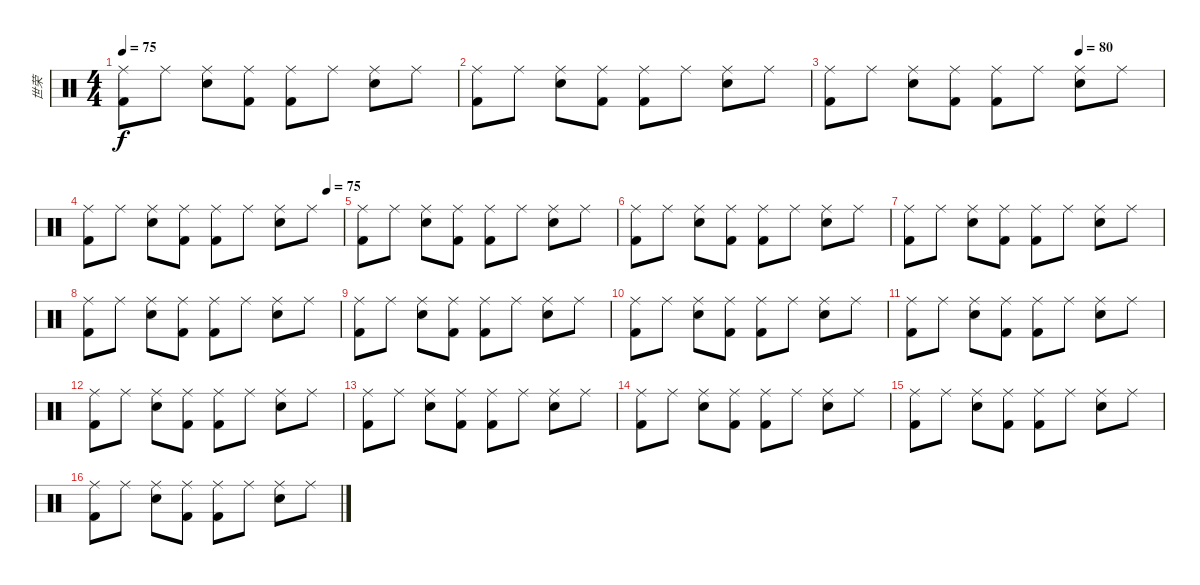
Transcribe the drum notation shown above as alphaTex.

\track ("世荣" "世荣") {instrument percussion}
\staff {score}
\articulation defaults
\ts (4 4)
\tempo 75
\clef neutral
\ks c
("Ride (middle)" "Kick (hit) 2").8{dy f} "Ride (middle)".8 ("Ride (middle)" "Electric Snare (hit)").8 ("Ride (middle)" "Kick (hit) 2").8 ("Ride (middle)" "Kick (hit) 2").8 "Ride (middle)".8 ("Ride (middle)" "Electric Snare (hit)").8 "Ride (middle)".8 |
("Ride (middle)" "Kick (hit) 2").8 "Ride (middle)".8 ("Ride (middle)" "Electric Snare (hit)").8 ("Ride (middle)" "Kick (hit) 2").8 ("Ride (middle)" "Kick (hit) 2").8 "Ride (middle)".8 ("Ride (middle)" "Electric Snare (hit)").8 "Ride (middle)".8 |
\tempo (80 0.75)
("Ride (middle)" "Kick (hit) 2").8 "Ride (middle)".8 ("Ride (middle)" "Electric Snare (hit)").8 ("Ride (middle)" "Kick (hit) 2").8 ("Ride (middle)" "Kick (hit) 2").8 "Ride (middle)".8 ("Ride (middle)" "Electric Snare (hit)").8 "Ride (middle)".8 |
\tempo (75 0.9375)
("Ride (middle)" "Kick (hit) 2").8 "Ride (middle)".8 ("Ride (middle)" "Electric Snare (hit)").8 ("Ride (middle)" "Kick (hit) 2").8 ("Ride (middle)" "Kick (hit) 2").8 "Ride (middle)".8 ("Ride (middle)" "Electric Snare (hit)").8 "Ride (middle)".8 |
("Ride (middle)" "Kick (hit) 2").8 "Ride (middle)".8 ("Ride (middle)" "Electric Snare (hit)").8 ("Ride (middle)" "Kick (hit) 2").8 ("Ride (middle)" "Kick (hit) 2").8 "Ride (middle)".8 ("Ride (middle)" "Electric Snare (hit)").8 "Ride (middle)".8 |
("Ride (middle)" "Kick (hit) 2").8 "Ride (middle)".8 ("Ride (middle)" "Electric Snare (hit)").8 ("Ride (middle)" "Kick (hit) 2").8 ("Ride (middle)" "Kick (hit) 2").8 "Ride (middle)".8 ("Ride (middle)" "Electric Snare (hit)").8 "Ride (middle)".8 |
("Ride (middle)" "Kick (hit) 2").8 "Ride (middle)".8 ("Ride (middle)" "Electric Snare (hit)").8 ("Ride (middle)" "Kick (hit) 2").8 ("Ride (middle)" "Kick (hit) 2").8 "Ride (middle)".8 ("Ride (middle)" "Electric Snare (hit)").8 "Ride (middle)".8 |
("Ride (middle)" "Kick (hit) 2").8 "Ride (middle)".8 ("Ride (middle)" "Electric Snare (hit)").8 ("Ride (middle)" "Kick (hit) 2").8 ("Ride (middle)" "Kick (hit) 2").8 "Ride (middle)".8 ("Ride (middle)" "Electric Snare (hit)").8 "Ride (middle)".8 |
("Ride (middle)" "Kick (hit) 2").8 "Ride (middle)".8 ("Ride (middle)" "Electric Snare (hit)").8 ("Ride (middle)" "Kick (hit) 2").8 ("Ride (middle)" "Kick (hit) 2").8 "Ride (middle)".8 ("Ride (middle)" "Electric Snare (hit)").8 "Ride (middle)".8 |
("Ride (middle)" "Kick (hit) 2").8 "Ride (middle)".8 ("Ride (middle)" "Electric Snare (hit)").8 ("Ride (middle)" "Kick (hit) 2").8 ("Ride (middle)" "Kick (hit) 2").8 "Ride (middle)".8 ("Ride (middle)" "Electric Snare (hit)").8 "Ride (middle)".8 |
("Ride (middle)" "Kick (hit) 2").8 "Ride (middle)".8 ("Ride (middle)" "Electric Snare (hit)").8 ("Ride (middle)" "Kick (hit) 2").8 ("Ride (middle)" "Kick (hit) 2").8 "Ride (middle)".8 ("Ride (middle)" "Electric Snare (hit)").8 "Ride (middle)".8 |
("Ride (middle)" "Kick (hit) 2").8 "Ride (middle)".8 ("Ride (middle)" "Electric Snare (hit)").8 ("Ride (middle)" "Kick (hit) 2").8 ("Ride (middle)" "Kick (hit) 2").8 "Ride (middle)".8 ("Ride (middle)" "Electric Snare (hit)").8 "Ride (middle)".8 |
("Ride (middle)" "Kick (hit) 2").8 "Ride (middle)".8 ("Ride (middle)" "Electric Snare (hit)").8 ("Ride (middle)" "Kick (hit) 2").8 ("Ride (middle)" "Kick (hit) 2").8 "Ride (middle)".8 ("Ride (middle)" "Electric Snare (hit)").8 "Ride (middle)".8 |
("Ride (middle)" "Kick (hit) 2").8 "Ride (middle)".8 ("Ride (middle)" "Electric Snare (hit)").8 ("Ride (middle)" "Kick (hit) 2").8 ("Ride (middle)" "Kick (hit) 2").8 "Ride (middle)".8 ("Ride (middle)" "Electric Snare (hit)").8 "Ride (middle)".8 |
("Ride (middle)" "Kick (hit) 2").8 "Ride (middle)".8 ("Ride (middle)" "Electric Snare (hit)").8 ("Ride (middle)" "Kick (hit) 2").8 ("Ride (middle)" "Kick (hit) 2").8 "Ride (middle)".8 ("Ride (middle)" "Electric Snare (hit)").8 "Ride (middle)".8 |
("Ride (middle)" "Kick (hit) 2").8 "Ride (middle)".8 ("Ride (middle)" "Electric Snare (hit)").8 ("Ride (middle)" "Kick (hit) 2").8 ("Ride (middle)" "Kick (hit) 2").8 "Ride (middle)".8 ("Ride (middle)" "Electric Snare (hit)").8 "Ride (middle)".8
